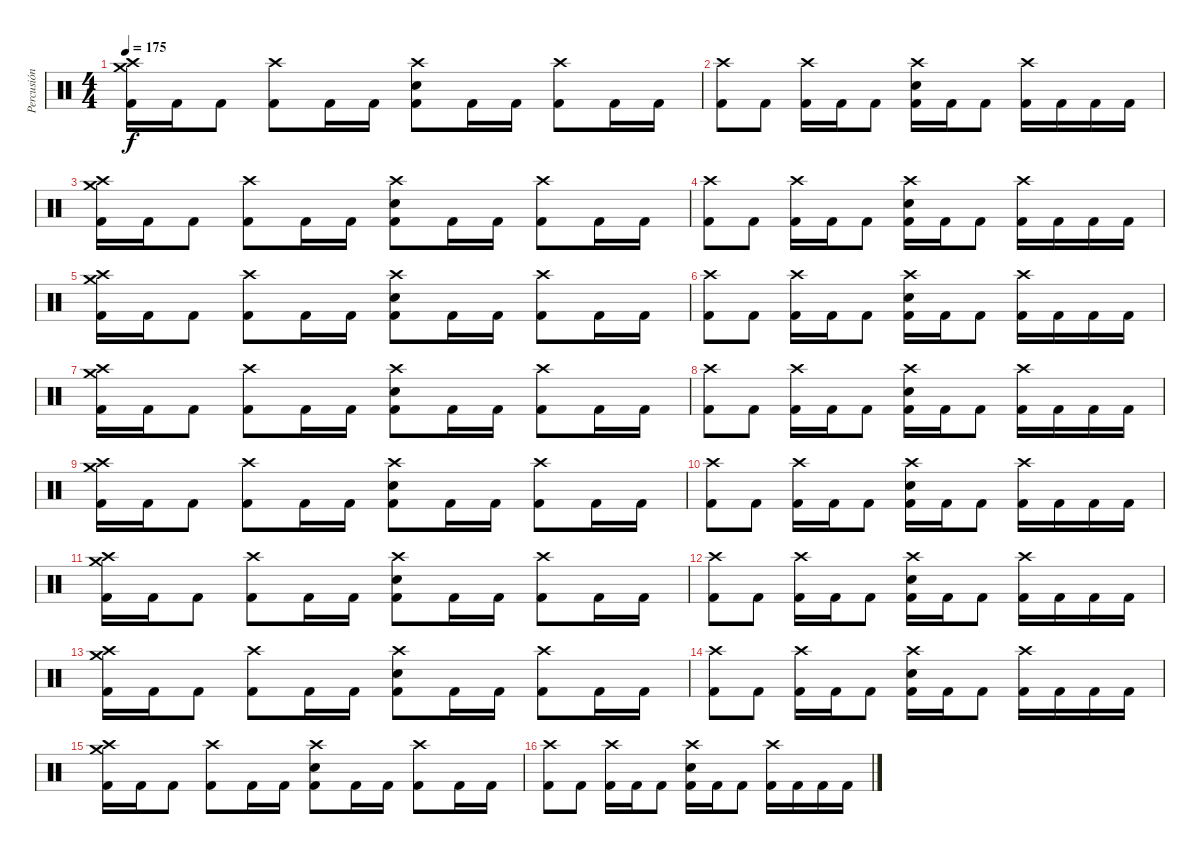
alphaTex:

\track ("Percusión" "Percusión") {instrument percussion}
\staff {score}
\articulation defaults
\ts (4 4)
\tempo 175
\clef neutral
\ks c
("Crash medium (hit)" "Crash high (hit)" "Kick (hit) 2").16{dy f} "Kick (hit) 2".16 "Kick (hit) 2".8 ("Crash high (hit)" "Kick (hit) 2").8 "Kick (hit) 2".16 "Kick (hit) 2".16 ("Crash high (hit)" "Electric Snare (hit)" "Kick (hit) 2").8 "Kick (hit) 2".16 "Kick (hit) 2".16 ("Crash high (hit)" "Kick (hit) 2").8 "Kick (hit) 2".16 "Kick (hit) 2".16 |
("Crash high (hit)" "Kick (hit) 2").8 "Kick (hit) 2".8 ("Crash high (hit)" "Kick (hit) 2").16 "Kick (hit) 2".16 "Kick (hit) 2".8 ("Crash high (hit)" "Electric Snare (hit)" "Kick (hit) 2").16 "Kick (hit) 2".16 "Kick (hit) 2".8 ("Crash high (hit)" "Kick (hit) 2").16 "Kick (hit) 2".16 "Kick (hit) 2".16 "Kick (hit) 2".16 |
("Crash medium (hit)" "Crash high (hit)" "Kick (hit) 2").16 "Kick (hit) 2".16 "Kick (hit) 2".8 ("Crash high (hit)" "Kick (hit) 2").8 "Kick (hit) 2".16 "Kick (hit) 2".16 ("Crash high (hit)" "Electric Snare (hit)" "Kick (hit) 2").8 "Kick (hit) 2".16 "Kick (hit) 2".16 ("Crash high (hit)" "Kick (hit) 2").8 "Kick (hit) 2".16 "Kick (hit) 2".16 |
("Crash high (hit)" "Kick (hit) 2").8 "Kick (hit) 2".8 ("Crash high (hit)" "Kick (hit) 2").16 "Kick (hit) 2".16 "Kick (hit) 2".8 ("Crash high (hit)" "Electric Snare (hit)" "Kick (hit) 2").16 "Kick (hit) 2".16 "Kick (hit) 2".8 ("Crash high (hit)" "Kick (hit) 2").16 "Kick (hit) 2".16 "Kick (hit) 2".16 "Kick (hit) 2".16 |
("Crash medium (hit)" "Crash high (hit)" "Kick (hit) 2").16 "Kick (hit) 2".16 "Kick (hit) 2".8 ("Crash high (hit)" "Kick (hit) 2").8 "Kick (hit) 2".16 "Kick (hit) 2".16 ("Crash high (hit)" "Electric Snare (hit)" "Kick (hit) 2").8 "Kick (hit) 2".16 "Kick (hit) 2".16 ("Crash high (hit)" "Kick (hit) 2").8 "Kick (hit) 2".16 "Kick (hit) 2".16 |
("Crash high (hit)" "Kick (hit) 2").8 "Kick (hit) 2".8 ("Crash high (hit)" "Kick (hit) 2").16 "Kick (hit) 2".16 "Kick (hit) 2".8 ("Crash high (hit)" "Electric Snare (hit)" "Kick (hit) 2").16 "Kick (hit) 2".16 "Kick (hit) 2".8 ("Crash high (hit)" "Kick (hit) 2").16 "Kick (hit) 2".16 "Kick (hit) 2".16 "Kick (hit) 2".16 |
("Crash medium (hit)" "Crash high (hit)" "Kick (hit) 2").16 "Kick (hit) 2".16 "Kick (hit) 2".8 ("Crash high (hit)" "Kick (hit) 2").8 "Kick (hit) 2".16 "Kick (hit) 2".16 ("Crash high (hit)" "Electric Snare (hit)" "Kick (hit) 2").8 "Kick (hit) 2".16 "Kick (hit) 2".16 ("Crash high (hit)" "Kick (hit) 2").8 "Kick (hit) 2".16 "Kick (hit) 2".16 |
("Crash high (hit)" "Kick (hit) 2").8 "Kick (hit) 2".8 ("Crash high (hit)" "Kick (hit) 2").16 "Kick (hit) 2".16 "Kick (hit) 2".8 ("Crash high (hit)" "Electric Snare (hit)" "Kick (hit) 2").16 "Kick (hit) 2".16 "Kick (hit) 2".8 ("Crash high (hit)" "Kick (hit) 2").16 "Kick (hit) 2".16 "Kick (hit) 2".16 "Kick (hit) 2".16 |
("Crash medium (hit)" "Crash high (hit)" "Kick (hit) 2").16 "Kick (hit) 2".16 "Kick (hit) 2".8 ("Crash high (hit)" "Kick (hit) 2").8 "Kick (hit) 2".16 "Kick (hit) 2".16 ("Crash high (hit)" "Electric Snare (hit)" "Kick (hit) 2").8 "Kick (hit) 2".16 "Kick (hit) 2".16 ("Crash high (hit)" "Kick (hit) 2").8 "Kick (hit) 2".16 "Kick (hit) 2".16 |
("Crash high (hit)" "Kick (hit) 2").8 "Kick (hit) 2".8 ("Crash high (hit)" "Kick (hit) 2").16 "Kick (hit) 2".16 "Kick (hit) 2".8 ("Crash high (hit)" "Electric Snare (hit)" "Kick (hit) 2").16 "Kick (hit) 2".16 "Kick (hit) 2".8 ("Crash high (hit)" "Kick (hit) 2").16 "Kick (hit) 2".16 "Kick (hit) 2".16 "Kick (hit) 2".16 |
("Crash medium (hit)" "Crash high (hit)" "Kick (hit) 2").16 "Kick (hit) 2".16 "Kick (hit) 2".8 ("Crash high (hit)" "Kick (hit) 2").8 "Kick (hit) 2".16 "Kick (hit) 2".16 ("Crash high (hit)" "Electric Snare (hit)" "Kick (hit) 2").8 "Kick (hit) 2".16 "Kick (hit) 2".16 ("Crash high (hit)" "Kick (hit) 2").8 "Kick (hit) 2".16 "Kick (hit) 2".16 |
("Crash high (hit)" "Kick (hit) 2").8 "Kick (hit) 2".8 ("Crash high (hit)" "Kick (hit) 2").16 "Kick (hit) 2".16 "Kick (hit) 2".8 ("Crash high (hit)" "Electric Snare (hit)" "Kick (hit) 2").16 "Kick (hit) 2".16 "Kick (hit) 2".8 ("Crash high (hit)" "Kick (hit) 2").16 "Kick (hit) 2".16 "Kick (hit) 2".16 "Kick (hit) 2".16 |
("Crash medium (hit)" "Crash high (hit)" "Kick (hit) 2").16 "Kick (hit) 2".16 "Kick (hit) 2".8 ("Crash high (hit)" "Kick (hit) 2").8 "Kick (hit) 2".16 "Kick (hit) 2".16 ("Crash high (hit)" "Electric Snare (hit)" "Kick (hit) 2").8 "Kick (hit) 2".16 "Kick (hit) 2".16 ("Crash high (hit)" "Kick (hit) 2").8 "Kick (hit) 2".16 "Kick (hit) 2".16 |
("Crash high (hit)" "Kick (hit) 2").8 "Kick (hit) 2".8 ("Crash high (hit)" "Kick (hit) 2").16 "Kick (hit) 2".16 "Kick (hit) 2".8 ("Crash high (hit)" "Electric Snare (hit)" "Kick (hit) 2").16 "Kick (hit) 2".16 "Kick (hit) 2".8 ("Crash high (hit)" "Kick (hit) 2").16 "Kick (hit) 2".16 "Kick (hit) 2".16 "Kick (hit) 2".16 |
("Crash medium (hit)" "Crash high (hit)" "Kick (hit) 2").16 "Kick (hit) 2".16 "Kick (hit) 2".8 ("Crash high (hit)" "Kick (hit) 2").8 "Kick (hit) 2".16 "Kick (hit) 2".16 ("Crash high (hit)" "Electric Snare (hit)" "Kick (hit) 2").8 "Kick (hit) 2".16 "Kick (hit) 2".16 ("Crash high (hit)" "Kick (hit) 2").8 "Kick (hit) 2".16 "Kick (hit) 2".16 |
("Crash high (hit)" "Kick (hit) 2").8 "Kick (hit) 2".8 ("Crash high (hit)" "Kick (hit) 2").16 "Kick (hit) 2".16 "Kick (hit) 2".8 ("Crash high (hit)" "Electric Snare (hit)" "Kick (hit) 2").16 "Kick (hit) 2".16 "Kick (hit) 2".8 ("Crash high (hit)" "Kick (hit) 2").16 "Kick (hit) 2".16 "Kick (hit) 2".16 "Kick (hit) 2".16
